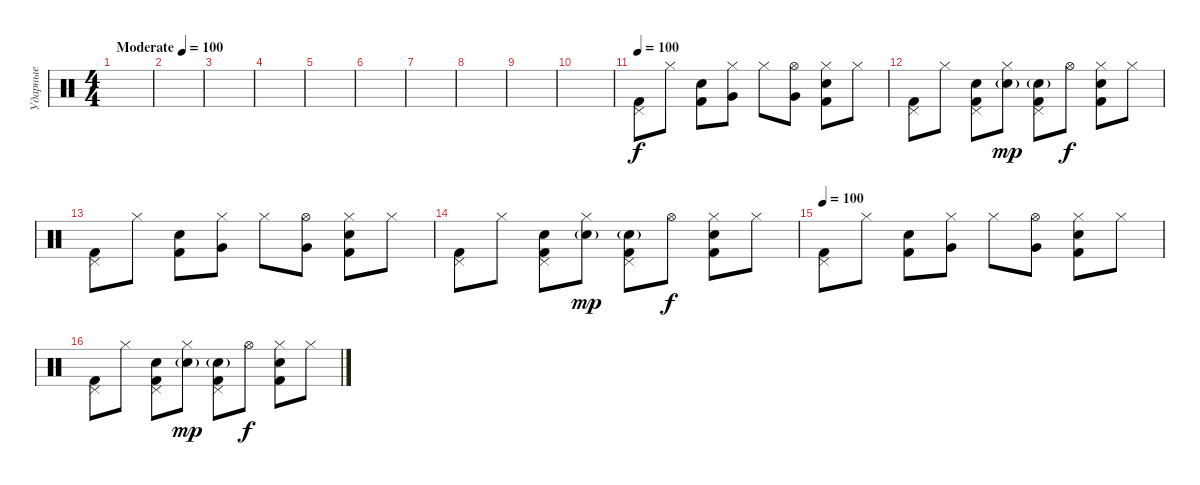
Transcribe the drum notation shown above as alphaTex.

\track ("Ударные" "Ударные") {instrument percussion}
\staff {score}
\articulation defaults
\ts (4 4)
\tempo (100 "Moderate")
\clef neutral
\ks c
|
|
|
|
|
|
|
|
|
|
\tempo 100
("Kick (hit) 2" "Pedal Hi-Hat (hit)").8 "Hi-Hat (closed)".8 ("Snare (hit) 2" "Kick (hit) 2").8 ("Hi-Hat (closed)" "Very Low Tom (hit)").8 "Hi-Hat (closed)".8 ("Hi-Hat (open)" "Very Low Tom (hit)").8 ("Hi-Hat (closed)" "Kick (hit) 2" "Snare (hit) 2").8 "Hi-Hat (closed)".8 |
("Pedal Hi-Hat (hit)" "Kick (hit) 2").8 "Hi-Hat (closed)".8 ("Pedal Hi-Hat (hit)" "Kick (hit) 2" "Snare (hit) 2").8 ("Hi-Hat (closed)" "Snare (hit) 2"{g}).8{dy mp} ("Pedal Hi-Hat (hit)" "Kick (hit) 2" "Snare (hit) 2"{g}).8 "Hi-Hat (open)".8{dy f} ("Hi-Hat (closed)" "Kick (hit) 2" "Snare (hit) 2").8 "Hi-Hat (closed)".8 |
("Kick (hit) 2" "Pedal Hi-Hat (hit)").8 "Hi-Hat (closed)".8 ("Snare (hit) 2" "Kick (hit) 2").8 ("Hi-Hat (closed)" "Very Low Tom (hit)").8 "Hi-Hat (closed)".8 ("Hi-Hat (open)" "Very Low Tom (hit)").8 ("Hi-Hat (closed)" "Kick (hit) 2" "Snare (hit) 2").8 "Hi-Hat (closed)".8 |
("Pedal Hi-Hat (hit)" "Kick (hit) 2").8 "Hi-Hat (closed)".8 ("Pedal Hi-Hat (hit)" "Kick (hit) 2" "Snare (hit) 2").8 ("Hi-Hat (closed)" "Snare (hit) 2"{g}).8{dy mp} ("Pedal Hi-Hat (hit)" "Kick (hit) 2" "Snare (hit) 2"{g}).8 "Hi-Hat (open)".8{dy f} ("Hi-Hat (closed)" "Kick (hit) 2" "Snare (hit) 2").8 "Hi-Hat (closed)".8 |
\tempo 100
("Kick (hit) 2" "Pedal Hi-Hat (hit)").8 "Hi-Hat (closed)".8 ("Snare (hit) 2" "Kick (hit) 2").8 ("Hi-Hat (closed)" "Very Low Tom (hit)").8 "Hi-Hat (closed)".8 ("Hi-Hat (open)" "Very Low Tom (hit)").8 ("Hi-Hat (closed)" "Kick (hit) 2" "Snare (hit) 2").8 "Hi-Hat (closed)".8 |
("Pedal Hi-Hat (hit)" "Kick (hit) 2").8 "Hi-Hat (closed)".8 ("Pedal Hi-Hat (hit)" "Kick (hit) 2" "Snare (hit) 2").8 ("Hi-Hat (closed)" "Snare (hit) 2"{g}).8{dy mp} ("Pedal Hi-Hat (hit)" "Kick (hit) 2" "Snare (hit) 2"{g}).8 "Hi-Hat (open)".8{dy f} ("Hi-Hat (closed)" "Kick (hit) 2" "Snare (hit) 2").8 "Hi-Hat (closed)".8
